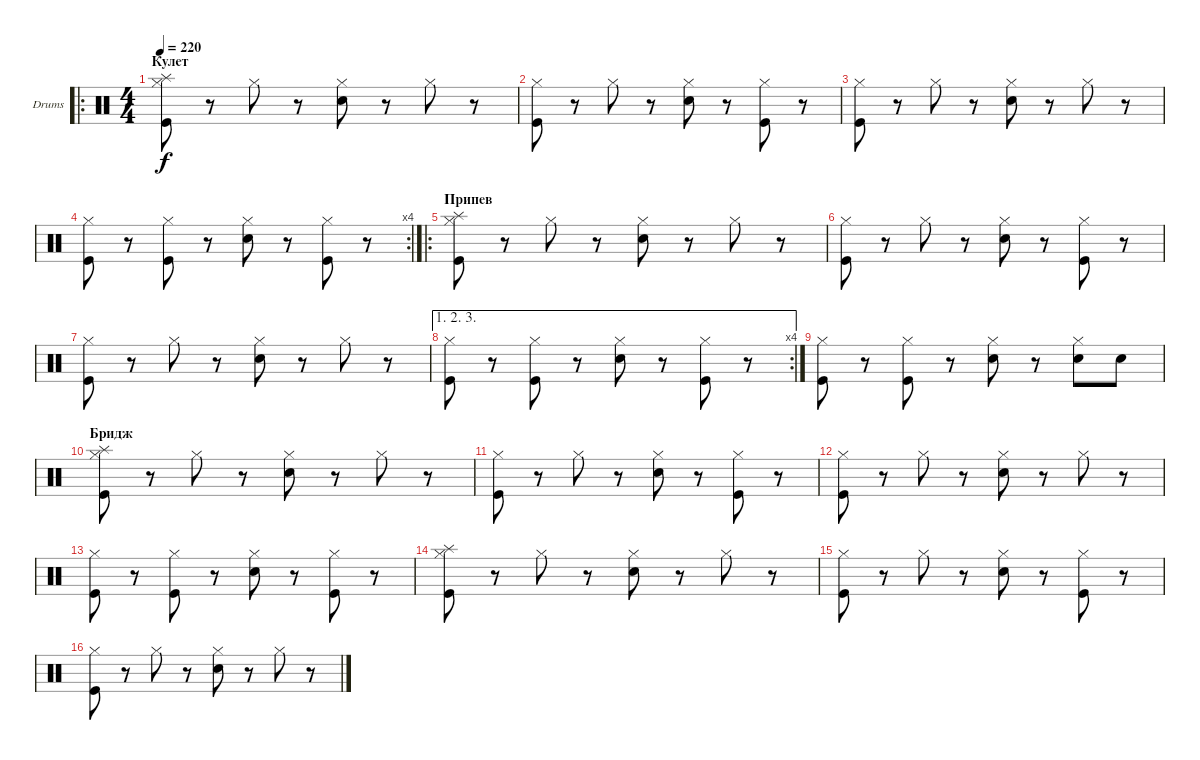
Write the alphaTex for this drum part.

\bracketExtendMode groupsimilarinstruments
\firstSystemTrackNameOrientation horizontal
\otherSystemsTrackNameOrientation horizontal
\track ("Ударные" "Drums") {instrument percussion}
\staff {score}
\articulation defaults
\ro
\ts (4 4)
\section ("" "Кулет")
\tempo 220
\clef neutral
\ks c
("Hi-Hat (closed)" "Splash (hit)" "Kick (hit)").8{dy f} r.8 "Hi-Hat (closed)".8 r.8 ("Hi-Hat (closed)" "Snare (hit) 2").8 r.8 "Hi-Hat (closed)".8 r.8 |
("Hi-Hat (closed)" "Kick (hit)").8 r.8 "Hi-Hat (closed)".8 r.8 ("Hi-Hat (closed)" "Snare (hit) 2").8 r.8 ("Hi-Hat (closed)" "Kick (hit)").8 r.8 |
("Hi-Hat (closed)" "Kick (hit)").8 r.8 "Hi-Hat (closed)".8 r.8 ("Hi-Hat (closed)" "Snare (hit) 2").8 r.8 "Hi-Hat (closed)".8 r.8 |
\rc 4
("Hi-Hat (closed)" "Kick (hit)").8 r.8 ("Hi-Hat (closed)" "Kick (hit)").8 r.8 ("Hi-Hat (closed)" "Snare (hit) 2").8 r.8 ("Hi-Hat (closed)" "Kick (hit)").8 r.8 |
\ro
\section ("" "Припев")
("Hi-Hat (closed)" "Splash (hit)" "Kick (hit)").8 r.8 "Hi-Hat (closed)".8 r.8 ("Hi-Hat (closed)" "Snare (hit) 2").8 r.8 "Hi-Hat (closed)".8 r.8 |
("Hi-Hat (closed)" "Kick (hit)").8 r.8 "Hi-Hat (closed)".8 r.8 ("Hi-Hat (closed)" "Snare (hit) 2").8 r.8 ("Hi-Hat (closed)" "Kick (hit)").8 r.8 |
("Hi-Hat (closed)" "Kick (hit)").8 r.8 "Hi-Hat (closed)".8 r.8 ("Hi-Hat (closed)" "Snare (hit) 2").8 r.8 "Hi-Hat (closed)".8 r.8 |
\ae (1 2 3)
\rc 4
("Hi-Hat (closed)" "Kick (hit)").8 r.8 ("Hi-Hat (closed)" "Kick (hit)").8 r.8 ("Hi-Hat (closed)" "Snare (hit) 2").8 r.8 ("Hi-Hat (closed)" "Kick (hit)").8 r.8 |
("Hi-Hat (closed)" "Kick (hit)").8 r.8 ("Hi-Hat (closed)" "Kick (hit)").8 r.8 ("Hi-Hat (closed)" "Snare (hit) 2").8 r.8 ("Hi-Hat (closed)" "Snare (hit) 2").8 "Snare (hit) 2".8 |
\section ("" "Бридж")
("Hi-Hat (closed)" "Splash (hit)" "Kick (hit)").8 r.8 "Hi-Hat (closed)".8 r.8 ("Hi-Hat (closed)" "Snare (hit) 2").8 r.8 "Hi-Hat (closed)".8 r.8 |
("Hi-Hat (closed)" "Kick (hit)").8 r.8 "Hi-Hat (closed)".8 r.8 ("Hi-Hat (closed)" "Snare (hit) 2").8 r.8 ("Hi-Hat (closed)" "Kick (hit)").8 r.8 |
("Hi-Hat (closed)" "Kick (hit)").8 r.8 "Hi-Hat (closed)".8 r.8 ("Hi-Hat (closed)" "Snare (hit) 2").8 r.8 "Hi-Hat (closed)".8 r.8 |
("Hi-Hat (closed)" "Kick (hit)").8 r.8 ("Hi-Hat (closed)" "Kick (hit)").8 r.8 ("Hi-Hat (closed)" "Snare (hit) 2").8 r.8 ("Hi-Hat (closed)" "Kick (hit)").8 r.8 |
("Hi-Hat (closed)" "Splash (hit)" "Kick (hit)").8 r.8 "Hi-Hat (closed)".8 r.8 ("Hi-Hat (closed)" "Snare (hit) 2").8 r.8 "Hi-Hat (closed)".8 r.8 |
("Hi-Hat (closed)" "Kick (hit)").8 r.8 "Hi-Hat (closed)".8 r.8 ("Hi-Hat (closed)" "Snare (hit) 2").8 r.8 ("Hi-Hat (closed)" "Kick (hit)").8 r.8 |
("Hi-Hat (closed)" "Kick (hit)").8 r.8 "Hi-Hat (closed)".8 r.8 ("Hi-Hat (closed)" "Snare (hit) 2").8 r.8 "Hi-Hat (closed)".8 r.8
